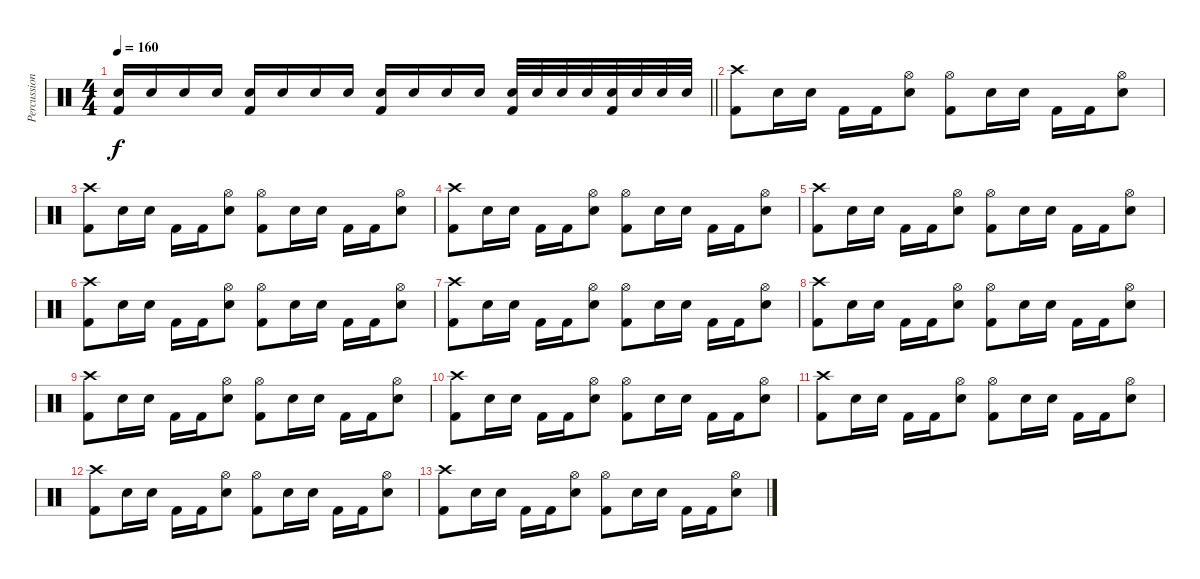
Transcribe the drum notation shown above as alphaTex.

\track ("Percussion" "Percussion") {instrument percussion}
\staff {score}
\articulation defaults
\ts (4 4)
\tempo 160
\clef neutral
\barLineRight lightlight
\ks c
("Electric Snare (hit)" "Kick (hit) 2").16{dy f} "Electric Snare (hit)".16 "Electric Snare (hit)".16 "Electric Snare (hit)".16 ("Electric Snare (hit)" "Kick (hit) 2").16 "Electric Snare (hit)".16 "Electric Snare (hit)".16 "Electric Snare (hit)".16 ("Electric Snare (hit)" "Kick (hit) 2").16 "Electric Snare (hit)".16 "Electric Snare (hit)".16 "Electric Snare (hit)".16 ("Electric Snare (hit)" "Kick (hit) 2").32 "Electric Snare (hit)".32 "Electric Snare (hit)".32 "Electric Snare (hit)".32 ("Electric Snare (hit)" "Kick (hit) 2").32 "Electric Snare (hit)".32 "Electric Snare (hit)".32 "Electric Snare (hit)".32 |
("Crash high (hit)" "Kick (hit) 2").8 "Electric Snare (hit)".16 "Electric Snare (hit)".16 "Kick (hit) 2".16 "Kick (hit) 2".16 ("Hi-Hat (open)" "Electric Snare (hit)").8 ("Hi-Hat (open)" "Kick (hit) 2").8 "Electric Snare (hit)".16 "Electric Snare (hit)".16 "Kick (hit) 2".16 "Kick (hit) 2".16 ("Hi-Hat (open)" "Electric Snare (hit)").8 |
("Crash high (hit)" "Kick (hit) 2").8 "Electric Snare (hit)".16 "Electric Snare (hit)".16 "Kick (hit) 2".16 "Kick (hit) 2".16 ("Hi-Hat (open)" "Electric Snare (hit)").8 ("Hi-Hat (open)" "Kick (hit) 2").8 "Electric Snare (hit)".16 "Electric Snare (hit)".16 "Kick (hit) 2".16 "Kick (hit) 2".16 ("Hi-Hat (open)" "Electric Snare (hit)").8 |
("Crash high (hit)" "Kick (hit) 2").8 "Electric Snare (hit)".16 "Electric Snare (hit)".16 "Kick (hit) 2".16 "Kick (hit) 2".16 ("Hi-Hat (open)" "Electric Snare (hit)").8 ("Hi-Hat (open)" "Kick (hit) 2").8 "Electric Snare (hit)".16 "Electric Snare (hit)".16 "Kick (hit) 2".16 "Kick (hit) 2".16 ("Hi-Hat (open)" "Electric Snare (hit)").8 |
("Crash high (hit)" "Kick (hit) 2").8 "Electric Snare (hit)".16 "Electric Snare (hit)".16 "Kick (hit) 2".16 "Kick (hit) 2".16 ("Hi-Hat (open)" "Electric Snare (hit)").8 ("Hi-Hat (open)" "Kick (hit) 2").8 "Electric Snare (hit)".16 "Electric Snare (hit)".16 "Kick (hit) 2".16 "Kick (hit) 2".16 ("Hi-Hat (open)" "Electric Snare (hit)").8 |
("Crash high (hit)" "Kick (hit) 2").8 "Electric Snare (hit)".16 "Electric Snare (hit)".16 "Kick (hit) 2".16 "Kick (hit) 2".16 ("Hi-Hat (open)" "Electric Snare (hit)").8 ("Hi-Hat (open)" "Kick (hit) 2").8 "Electric Snare (hit)".16 "Electric Snare (hit)".16 "Kick (hit) 2".16 "Kick (hit) 2".16 ("Hi-Hat (open)" "Electric Snare (hit)").8 |
("Crash high (hit)" "Kick (hit) 2").8 "Electric Snare (hit)".16 "Electric Snare (hit)".16 "Kick (hit) 2".16 "Kick (hit) 2".16 ("Hi-Hat (open)" "Electric Snare (hit)").8 ("Hi-Hat (open)" "Kick (hit) 2").8 "Electric Snare (hit)".16 "Electric Snare (hit)".16 "Kick (hit) 2".16 "Kick (hit) 2".16 ("Hi-Hat (open)" "Electric Snare (hit)").8 |
("Crash high (hit)" "Kick (hit) 2").8 "Electric Snare (hit)".16 "Electric Snare (hit)".16 "Kick (hit) 2".16 "Kick (hit) 2".16 ("Hi-Hat (open)" "Electric Snare (hit)").8 ("Hi-Hat (open)" "Kick (hit) 2").8 "Electric Snare (hit)".16 "Electric Snare (hit)".16 "Kick (hit) 2".16 "Kick (hit) 2".16 ("Hi-Hat (open)" "Electric Snare (hit)").8 |
("Crash high (hit)" "Kick (hit) 2").8 "Electric Snare (hit)".16 "Electric Snare (hit)".16 "Kick (hit) 2".16 "Kick (hit) 2".16 ("Hi-Hat (open)" "Electric Snare (hit)").8 ("Hi-Hat (open)" "Kick (hit) 2").8 "Electric Snare (hit)".16 "Electric Snare (hit)".16 "Kick (hit) 2".16 "Kick (hit) 2".16 ("Hi-Hat (open)" "Electric Snare (hit)").8 |
("Crash high (hit)" "Kick (hit) 2").8 "Electric Snare (hit)".16 "Electric Snare (hit)".16 "Kick (hit) 2".16 "Kick (hit) 2".16 ("Hi-Hat (open)" "Electric Snare (hit)").8 ("Hi-Hat (open)" "Kick (hit) 2").8 "Electric Snare (hit)".16 "Electric Snare (hit)".16 "Kick (hit) 2".16 "Kick (hit) 2".16 ("Hi-Hat (open)" "Electric Snare (hit)").8 |
("Crash high (hit)" "Kick (hit) 2").8 "Electric Snare (hit)".16 "Electric Snare (hit)".16 "Kick (hit) 2".16 "Kick (hit) 2".16 ("Hi-Hat (open)" "Electric Snare (hit)").8 ("Hi-Hat (open)" "Kick (hit) 2").8 "Electric Snare (hit)".16 "Electric Snare (hit)".16 "Kick (hit) 2".16 "Kick (hit) 2".16 ("Hi-Hat (open)" "Electric Snare (hit)").8 |
("Crash high (hit)" "Kick (hit) 2").8 "Electric Snare (hit)".16 "Electric Snare (hit)".16 "Kick (hit) 2".16 "Kick (hit) 2".16 ("Hi-Hat (open)" "Electric Snare (hit)").8 ("Hi-Hat (open)" "Kick (hit) 2").8 "Electric Snare (hit)".16 "Electric Snare (hit)".16 "Kick (hit) 2".16 "Kick (hit) 2".16 ("Hi-Hat (open)" "Electric Snare (hit)").8 |
("Crash high (hit)" "Kick (hit) 2").8 "Electric Snare (hit)".16 "Electric Snare (hit)".16 "Kick (hit) 2".16 "Kick (hit) 2".16 ("Hi-Hat (open)" "Electric Snare (hit)").8 ("Hi-Hat (open)" "Kick (hit) 2").8 "Electric Snare (hit)".16 "Electric Snare (hit)".16 "Kick (hit) 2".16 "Kick (hit) 2".16 ("Hi-Hat (open)" "Electric Snare (hit)").8
